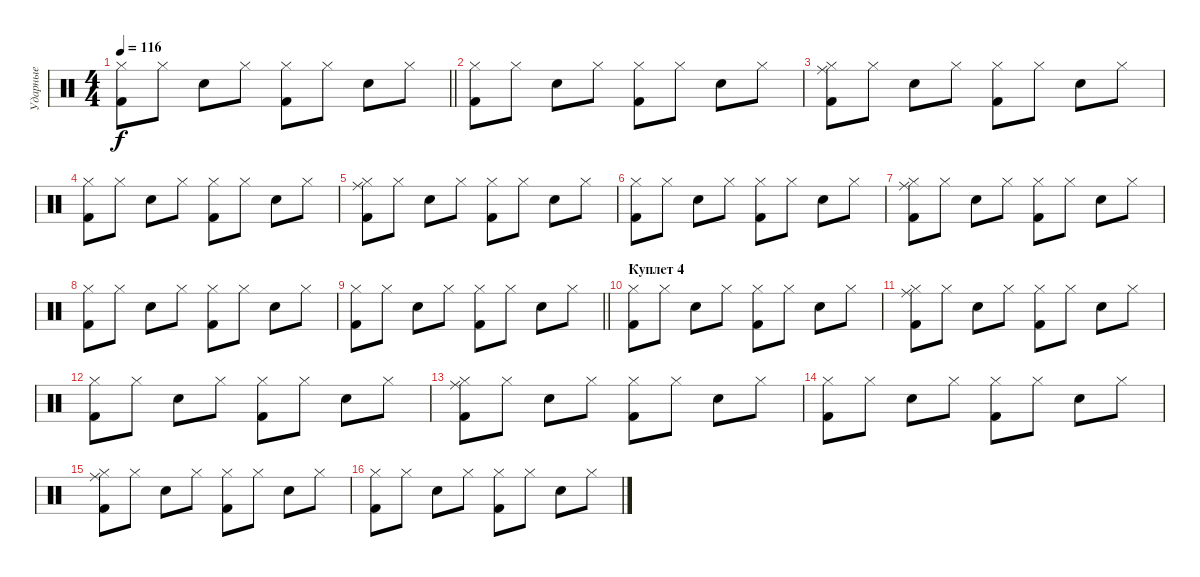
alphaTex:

\track ("Ударные" "Ударные") {instrument percussion}
\staff {score}
\articulation defaults
\ts (4 4)
\tempo 116
\clef neutral
\barLineRight lightlight
\ks c
("Hi-Hat (closed)" "Kick (hit) 2").8{dy f} "Hi-Hat (closed)".8 "Snare (hit) 2".8 "Hi-Hat (closed)".8 ("Hi-Hat (closed)" "Kick (hit) 2").8 "Hi-Hat (closed)".8 "Snare (hit) 2".8 "Hi-Hat (closed)".8 |
("Hi-Hat (closed)" "Kick (hit) 2").8 "Hi-Hat (closed)".8 "Snare (hit) 2".8 "Hi-Hat (closed)".8 ("Hi-Hat (closed)" "Kick (hit) 2").8 "Hi-Hat (closed)".8 "Snare (hit) 2".8 "Hi-Hat (closed)".8 |
("Hi-Hat (closed)" "Kick (hit) 2" "Ride (middle)").8 "Hi-Hat (closed)".8 "Snare (hit) 2".8 "Hi-Hat (closed)".8 ("Hi-Hat (closed)" "Kick (hit) 2").8 "Hi-Hat (closed)".8 "Snare (hit) 2".8 "Hi-Hat (closed)".8 |
("Hi-Hat (closed)" "Kick (hit) 2").8 "Hi-Hat (closed)".8 "Snare (hit) 2".8 "Hi-Hat (closed)".8 ("Hi-Hat (closed)" "Kick (hit) 2").8 "Hi-Hat (closed)".8 "Snare (hit) 2".8 "Hi-Hat (closed)".8 |
("Hi-Hat (closed)" "Kick (hit) 2" "Ride (middle)").8 "Hi-Hat (closed)".8 "Snare (hit) 2".8 "Hi-Hat (closed)".8 ("Hi-Hat (closed)" "Kick (hit) 2").8 "Hi-Hat (closed)".8 "Snare (hit) 2".8 "Hi-Hat (closed)".8 |
("Hi-Hat (closed)" "Kick (hit) 2").8 "Hi-Hat (closed)".8 "Snare (hit) 2".8 "Hi-Hat (closed)".8 ("Hi-Hat (closed)" "Kick (hit) 2").8 "Hi-Hat (closed)".8 "Snare (hit) 2".8 "Hi-Hat (closed)".8 |
("Hi-Hat (closed)" "Kick (hit) 2" "Ride (middle)").8 "Hi-Hat (closed)".8 "Snare (hit) 2".8 "Hi-Hat (closed)".8 ("Hi-Hat (closed)" "Kick (hit) 2").8 "Hi-Hat (closed)".8 "Snare (hit) 2".8 "Hi-Hat (closed)".8 |
("Hi-Hat (closed)" "Kick (hit) 2").8 "Hi-Hat (closed)".8 "Snare (hit) 2".8 "Hi-Hat (closed)".8 ("Hi-Hat (closed)" "Kick (hit) 2").8 "Hi-Hat (closed)".8 "Snare (hit) 2".8 "Hi-Hat (closed)".8 |
\barLineRight lightlight
("Hi-Hat (closed)" "Kick (hit) 2").8 "Hi-Hat (closed)".8 "Snare (hit) 2".8 "Hi-Hat (closed)".8 ("Hi-Hat (closed)" "Kick (hit) 2").8 "Hi-Hat (closed)".8 "Snare (hit) 2".8 "Hi-Hat (closed)".8 |
\section ("" "Куплет 4")
("Hi-Hat (closed)" "Kick (hit) 2").8 "Hi-Hat (closed)".8 "Snare (hit) 2".8 "Hi-Hat (closed)".8 ("Hi-Hat (closed)" "Kick (hit) 2").8 "Hi-Hat (closed)".8 "Snare (hit) 2".8 "Hi-Hat (closed)".8 |
("Hi-Hat (closed)" "Kick (hit) 2" "Ride (middle)").8 "Hi-Hat (closed)".8 "Snare (hit) 2".8 "Hi-Hat (closed)".8 ("Hi-Hat (closed)" "Kick (hit) 2").8 "Hi-Hat (closed)".8 "Snare (hit) 2".8 "Hi-Hat (closed)".8 |
("Hi-Hat (closed)" "Kick (hit) 2").8 "Hi-Hat (closed)".8 "Snare (hit) 2".8 "Hi-Hat (closed)".8 ("Hi-Hat (closed)" "Kick (hit) 2").8 "Hi-Hat (closed)".8 "Snare (hit) 2".8 "Hi-Hat (closed)".8 |
("Hi-Hat (closed)" "Kick (hit) 2" "Ride (middle)").8 "Hi-Hat (closed)".8 "Snare (hit) 2".8 "Hi-Hat (closed)".8 ("Hi-Hat (closed)" "Kick (hit) 2").8 "Hi-Hat (closed)".8 "Snare (hit) 2".8 "Hi-Hat (closed)".8 |
("Hi-Hat (closed)" "Kick (hit) 2").8 "Hi-Hat (closed)".8 "Snare (hit) 2".8 "Hi-Hat (closed)".8 ("Hi-Hat (closed)" "Kick (hit) 2").8 "Hi-Hat (closed)".8 "Snare (hit) 2".8 "Hi-Hat (closed)".8 |
("Hi-Hat (closed)" "Kick (hit) 2" "Ride (middle)").8 "Hi-Hat (closed)".8 "Snare (hit) 2".8 "Hi-Hat (closed)".8 ("Hi-Hat (closed)" "Kick (hit) 2").8 "Hi-Hat (closed)".8 "Snare (hit) 2".8 "Hi-Hat (closed)".8 |
("Hi-Hat (closed)" "Kick (hit) 2").8 "Hi-Hat (closed)".8 "Snare (hit) 2".8 "Hi-Hat (closed)".8 ("Hi-Hat (closed)" "Kick (hit) 2").8 "Hi-Hat (closed)".8 "Snare (hit) 2".8 "Hi-Hat (closed)".8
